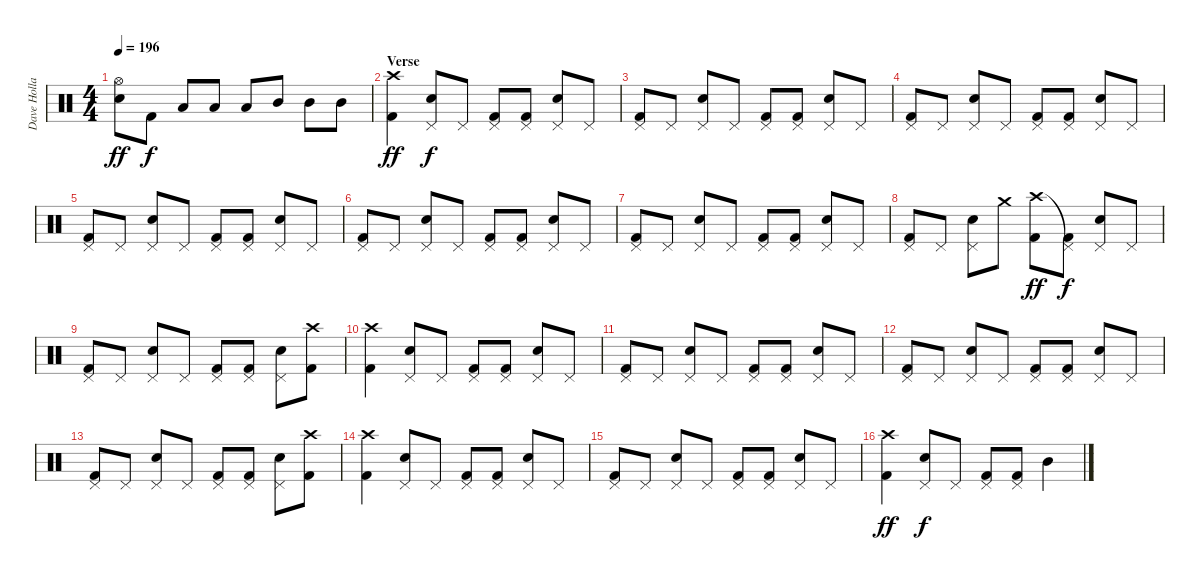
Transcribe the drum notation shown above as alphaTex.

\track ("Dave Holland" "Dave Holla") {instrument percussion}
\staff {score}
\articulation defaults
\ts (4 4)
\tempo 196
\clef neutral
\ks c
("Hi-Hat (open)" "Snare (hit) 2").8{dy ff} "Kick (hit) 2".8{dy f} "Low Tom (hit)".8 "Low Tom (hit)".8 "Low Tom (hit)".8 "Mid Tom (hit)".8 "Mid Tom (hit)".8 "Mid Tom (hit)".8 |
\section ("" "Verse")
("Crash high (hit)" "Kick (hit) 2").4{dy ff} ("Pedal Hi-Hat (hit)" "Snare (hit) 2").8{dy f} "Pedal Hi-Hat (hit)".8 ("Pedal Hi-Hat (hit)" "Kick (hit) 2").8 ("Pedal Hi-Hat (hit)" "Kick (hit) 2").8 ("Pedal Hi-Hat (hit)" "Snare (hit) 2").8 "Pedal Hi-Hat (hit)".8 |
("Pedal Hi-Hat (hit)" "Kick (hit) 2").8 "Pedal Hi-Hat (hit)".8 ("Pedal Hi-Hat (hit)" "Snare (hit) 2").8 "Pedal Hi-Hat (hit)".8 ("Pedal Hi-Hat (hit)" "Kick (hit) 2").8 ("Pedal Hi-Hat (hit)" "Kick (hit) 2").8 ("Pedal Hi-Hat (hit)" "Snare (hit) 2").8 "Pedal Hi-Hat (hit)".8 |
("Pedal Hi-Hat (hit)" "Kick (hit) 2").8 "Pedal Hi-Hat (hit)".8 ("Pedal Hi-Hat (hit)" "Snare (hit) 2").8 "Pedal Hi-Hat (hit)".8 ("Pedal Hi-Hat (hit)" "Kick (hit) 2").8 ("Pedal Hi-Hat (hit)" "Kick (hit) 2").8 ("Pedal Hi-Hat (hit)" "Snare (hit) 2").8 "Pedal Hi-Hat (hit)".8 |
("Pedal Hi-Hat (hit)" "Kick (hit) 2").8 "Pedal Hi-Hat (hit)".8 ("Pedal Hi-Hat (hit)" "Snare (hit) 2").8 "Pedal Hi-Hat (hit)".8 ("Pedal Hi-Hat (hit)" "Kick (hit) 2").8 ("Pedal Hi-Hat (hit)" "Kick (hit) 2").8 ("Pedal Hi-Hat (hit)" "Snare (hit) 2").8 "Pedal Hi-Hat (hit)".8 |
("Pedal Hi-Hat (hit)" "Kick (hit) 2").8 "Pedal Hi-Hat (hit)".8 ("Pedal Hi-Hat (hit)" "Snare (hit) 2").8 "Pedal Hi-Hat (hit)".8 ("Pedal Hi-Hat (hit)" "Kick (hit) 2").8 ("Pedal Hi-Hat (hit)" "Kick (hit) 2").8 ("Pedal Hi-Hat (hit)" "Snare (hit) 2").8 "Pedal Hi-Hat (hit)".8 |
("Pedal Hi-Hat (hit)" "Kick (hit) 2").8 "Pedal Hi-Hat (hit)".8 ("Pedal Hi-Hat (hit)" "Snare (hit) 2").8 "Pedal Hi-Hat (hit)".8 ("Pedal Hi-Hat (hit)" "Kick (hit) 2").8 ("Pedal Hi-Hat (hit)" "Kick (hit) 2").8 ("Pedal Hi-Hat (hit)" "Snare (hit) 2").8 "Pedal Hi-Hat (hit)".8 |
("Pedal Hi-Hat (hit)" "Kick (hit) 2").8 "Pedal Hi-Hat (hit)".8 ("Pedal Hi-Hat (hit)" "Snare (hit) 2").8 "Crash medium (hit)".8 ("Crash high (hit)" "Kick (hit) 2").8{dy ff} ("Pedal Hi-Hat (hit)"{t} "Kick (hit) 2").8{dy f} ("Pedal Hi-Hat (hit)" "Snare (hit) 2").8 "Pedal Hi-Hat (hit)".8 |
("Pedal Hi-Hat (hit)" "Kick (hit) 2").8 "Pedal Hi-Hat (hit)".8 ("Pedal Hi-Hat (hit)" "Snare (hit) 2").8 "Pedal Hi-Hat (hit)".8 ("Pedal Hi-Hat (hit)" "Kick (hit) 2").8 ("Pedal Hi-Hat (hit)" "Kick (hit) 2").8 ("Pedal Hi-Hat (hit)" "Snare (hit) 2").8 ("Crash high (hit)" "Kick (hit) 2").8 |
("Crash high (hit)" "Kick (hit) 2").4 ("Pedal Hi-Hat (hit)" "Snare (hit) 2").8 "Pedal Hi-Hat (hit)".8 ("Pedal Hi-Hat (hit)" "Kick (hit) 2").8 ("Pedal Hi-Hat (hit)" "Kick (hit) 2").8 ("Pedal Hi-Hat (hit)" "Snare (hit) 2").8 "Pedal Hi-Hat (hit)".8 |
("Pedal Hi-Hat (hit)" "Kick (hit) 2").8 "Pedal Hi-Hat (hit)".8 ("Pedal Hi-Hat (hit)" "Snare (hit) 2").8 "Pedal Hi-Hat (hit)".8 ("Pedal Hi-Hat (hit)" "Kick (hit) 2").8 ("Pedal Hi-Hat (hit)" "Kick (hit) 2").8 ("Pedal Hi-Hat (hit)" "Snare (hit) 2").8 "Pedal Hi-Hat (hit)".8 |
("Pedal Hi-Hat (hit)" "Kick (hit) 2").8 "Pedal Hi-Hat (hit)".8 ("Pedal Hi-Hat (hit)" "Snare (hit) 2").8 "Pedal Hi-Hat (hit)".8 ("Pedal Hi-Hat (hit)" "Kick (hit) 2").8 ("Pedal Hi-Hat (hit)" "Kick (hit) 2").8 ("Pedal Hi-Hat (hit)" "Snare (hit) 2").8 "Pedal Hi-Hat (hit)".8 |
("Pedal Hi-Hat (hit)" "Kick (hit) 2").8 "Pedal Hi-Hat (hit)".8 ("Pedal Hi-Hat (hit)" "Snare (hit) 2").8 "Pedal Hi-Hat (hit)".8 ("Pedal Hi-Hat (hit)" "Kick (hit) 2").8 ("Pedal Hi-Hat (hit)" "Kick (hit) 2").8 ("Pedal Hi-Hat (hit)" "Snare (hit) 2").8 ("Crash high (hit)" "Kick (hit) 2").8 |
("Crash high (hit)" "Kick (hit) 2").4 ("Pedal Hi-Hat (hit)" "Snare (hit) 2").8 "Pedal Hi-Hat (hit)".8 ("Pedal Hi-Hat (hit)" "Kick (hit) 2").8 ("Pedal Hi-Hat (hit)" "Kick (hit) 2").8 ("Pedal Hi-Hat (hit)" "Snare (hit) 2").8 "Pedal Hi-Hat (hit)".8 |
("Pedal Hi-Hat (hit)" "Kick (hit) 2").8 "Pedal Hi-Hat (hit)".8 ("Pedal Hi-Hat (hit)" "Snare (hit) 2").8 "Pedal Hi-Hat (hit)".8 ("Pedal Hi-Hat (hit)" "Kick (hit) 2").8 ("Pedal Hi-Hat (hit)" "Kick (hit) 2").8 ("Pedal Hi-Hat (hit)" "Snare (hit) 2").8 "Pedal Hi-Hat (hit)".8 |
("Crash high (hit)" "Kick (hit) 2").4{dy ff} ("Pedal Hi-Hat (hit)" "Snare (hit) 2").8{dy f} "Pedal Hi-Hat (hit)".8 ("Pedal Hi-Hat (hit)" "Kick (hit) 2").8 ("Pedal Hi-Hat (hit)" "Kick (hit) 2").8 "Mid Tom (hit)".4
